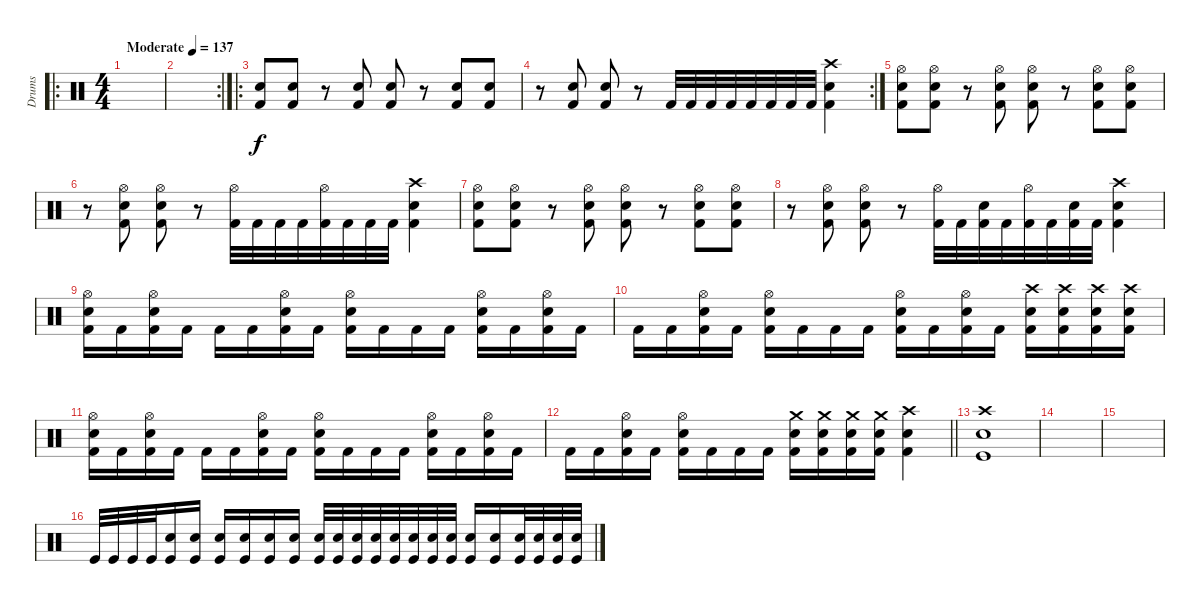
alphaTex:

\track ("Drums" "Drums") {instrument percussion}
\staff
\articulation defaults
\ro
\ts (4 4)
\tempo (137 "Moderate")
\clef neutral
\ks c
|
\rc 2
|
\ro
("Electric Snare (hit)" "Kick (hit) 2").8 ("Electric Snare (hit)" "Kick (hit) 2").8 r.8 ("Electric Snare (hit)" "Kick (hit) 2").8 ("Electric Snare (hit)" "Kick (hit) 2").8 r.8 ("Electric Snare (hit)" "Kick (hit) 2").8 ("Electric Snare (hit)" "Kick (hit) 2").8 |
\rc 2
r.8 ("Electric Snare (hit)" "Kick (hit) 2").8 ("Electric Snare (hit)" "Kick (hit) 2").8 r.8 "Kick (hit) 2".32 "Kick (hit) 2".32 "Kick (hit) 2".32 "Kick (hit) 2".32 "Kick (hit) 2".32 "Kick (hit) 2".32 "Kick (hit) 2".32 "Kick (hit) 2".32 ("Crash high (hit)" "Electric Snare (hit)" "Kick (hit) 2").4 |
("Hi-Hat (open)" "Electric Snare (hit)" "Kick (hit) 2").8 ("Hi-Hat (open)" "Electric Snare (hit)" "Kick (hit) 2").8 r.8 ("Hi-Hat (open)" "Electric Snare (hit)" "Kick (hit) 2").8 ("Hi-Hat (open)" "Electric Snare (hit)" "Kick (hit) 2").8 r.8 ("Hi-Hat (open)" "Electric Snare (hit)" "Kick (hit) 2").8 ("Hi-Hat (open)" "Electric Snare (hit)" "Kick (hit) 2").8 |
r.8 ("Hi-Hat (open)" "Electric Snare (hit)" "Kick (hit) 2").8 ("Hi-Hat (open)" "Electric Snare (hit)" "Kick (hit) 2").8 r.8 ("Hi-Hat (open)" "Kick (hit) 2").32 "Kick (hit) 2".32 "Kick (hit) 2".32 "Kick (hit) 2".32 ("Hi-Hat (open)" "Kick (hit) 2").32 "Kick (hit) 2".32 "Kick (hit) 2".32 "Kick (hit) 2".32 ("Crash high (hit)" "Electric Snare (hit)" "Kick (hit) 2").4 |
("Hi-Hat (open)" "Electric Snare (hit)" "Kick (hit) 2").8 ("Hi-Hat (open)" "Electric Snare (hit)" "Kick (hit) 2").8 r.8 ("Hi-Hat (open)" "Electric Snare (hit)" "Kick (hit) 2").8 ("Hi-Hat (open)" "Electric Snare (hit)" "Kick (hit) 2").8 r.8 ("Hi-Hat (open)" "Electric Snare (hit)" "Kick (hit) 2").8 ("Hi-Hat (open)" "Electric Snare (hit)" "Kick (hit) 2").8 |
r.8 ("Hi-Hat (open)" "Electric Snare (hit)" "Kick (hit) 2").8 ("Hi-Hat (open)" "Electric Snare (hit)" "Kick (hit) 2").8 r.8 ("Hi-Hat (open)" "Kick (hit) 2").32 "Kick (hit) 2".32 ("Electric Snare (hit)" "Kick (hit) 2").32 "Kick (hit) 2".32 ("Hi-Hat (open)" "Kick (hit) 2").32 "Kick (hit) 2".32 ("Electric Snare (hit)" "Kick (hit) 2").32 "Kick (hit) 2".32 ("Crash high (hit)" "Electric Snare (hit)" "Kick (hit) 2").4 |
("Hi-Hat (open)" "Electric Snare (hit)" "Kick (hit) 2").16 "Kick (hit) 2".16 ("Hi-Hat (open)" "Electric Snare (hit)" "Kick (hit) 2").16 "Kick (hit) 2".16 "Kick (hit) 2".16 "Kick (hit) 2".16 ("Hi-Hat (open)" "Electric Snare (hit)" "Kick (hit) 2").16 "Kick (hit) 2".16 ("Hi-Hat (open)" "Electric Snare (hit)" "Kick (hit) 2").16 "Kick (hit) 2".16 "Kick (hit) 2".16 "Kick (hit) 2".16 ("Hi-Hat (open)" "Electric Snare (hit)" "Kick (hit) 2").16 "Kick (hit) 2".16 ("Hi-Hat (open)" "Electric Snare (hit)" "Kick (hit) 2").16 "Kick (hit) 2".16 |
"Kick (hit) 2".16 "Kick (hit) 2".16 ("Hi-Hat (open)" "Electric Snare (hit)" "Kick (hit) 2").16 "Kick (hit) 2".16 ("Hi-Hat (open)" "Electric Snare (hit)" "Kick (hit) 2").16 "Kick (hit) 2".16 "Kick (hit) 2".16 "Kick (hit) 2".16 ("Hi-Hat (open)" "Electric Snare (hit)" "Kick (hit) 2").16 "Kick (hit) 2".16 ("Hi-Hat (open)" "Electric Snare (hit)" "Kick (hit) 2").16 "Kick (hit) 2".16 ("Crash high (hit)" "Electric Snare (hit)" "Kick (hit) 2").16 ("Crash high (hit)" "Electric Snare (hit)" "Kick (hit) 2").16 ("Crash high (hit)" "Electric Snare (hit)" "Kick (hit) 2").16 ("Crash high (hit)" "Electric Snare (hit)" "Kick (hit) 2").16 |
("Hi-Hat (open)" "Electric Snare (hit)" "Kick (hit) 2").16 "Kick (hit) 2".16 ("Hi-Hat (open)" "Electric Snare (hit)" "Kick (hit) 2").16 "Kick (hit) 2".16 "Kick (hit) 2".16 "Kick (hit) 2".16 ("Hi-Hat (open)" "Electric Snare (hit)" "Kick (hit) 2").16 "Kick (hit) 2".16 ("Hi-Hat (open)" "Electric Snare (hit)" "Kick (hit) 2").16 "Kick (hit) 2".16 "Kick (hit) 2".16 "Kick (hit) 2".16 ("Hi-Hat (open)" "Electric Snare (hit)" "Kick (hit) 2").16 "Kick (hit) 2".16 ("Hi-Hat (open)" "Electric Snare (hit)" "Kick (hit) 2").16 "Kick (hit) 2".16 |
\barLineRight lightlight "Kick (hit) 2".16 "Kick (hit) 2".16
("Hi-Hat (open)" "Electric Snare (hit)" "Kick (hit) 2").16 "Kick (hit) 2".16 ("Hi-Hat (open)" "Electric Snare (hit)" "Kick (hit) 2").16 "Kick (hit) 2".16 "Kick (hit) 2".16 "Kick (hit) 2".16 ("Crash medium (hit)" "Electric Snare (hit)" "Kick (hit) 2").16 ("Crash medium (hit)" "Electric Snare (hit)" "Kick (hit) 2").16 ("Crash medium (hit)" "Electric Snare (hit)" "Kick (hit) 2").16 ("Crash medium (hit)" "Electric Snare (hit)" "Kick (hit) 2").16 ("Crash high (hit)" "Electric Snare (hit)" "Kick (hit) 2").4 |
\section ("" "")
("Crash high (hit)" "Electric Snare (hit)" "Kick (hit)").1 |
|
|
"Kick (hit)".32 "Kick (hit)".32 "Kick (hit)".32 "Kick (hit)".32 ("Electric Snare (hit)" "Kick (hit)").16 ("Electric Snare (hit)" "Kick (hit)").16 ("Electric Snare (hit)" "Kick (hit)").16 ("Electric Snare (hit)" "Kick (hit)").16 ("Electric Snare (hit)" "Kick (hit)").16 ("Electric Snare (hit)" "Kick (hit)").16 ("Electric Snare (hit)" "Kick (hit)").32 ("Electric Snare (hit)" "Kick (hit)").32 ("Electric Snare (hit)" "Kick (hit)").32 ("Electric Snare (hit)" "Kick (hit)").32 ("Electric Snare (hit)" "Kick (hit)").32 ("Electric Snare (hit)" "Kick (hit)").32 ("Electric Snare (hit)" "Kick (hit)").32 ("Electric Snare (hit)" "Kick (hit)").32 ("Electric Snare (hit)" "Kick (hit)").16 ("Electric Snare (hit)" "Kick (hit)").16 ("Electric Snare (hit)" "Kick (hit)").32 ("Electric Snare (hit)" "Kick (hit)").32 ("Electric Snare (hit)" "Kick (hit)").32 ("Electric Snare (hit)" "Kick (hit)").32
